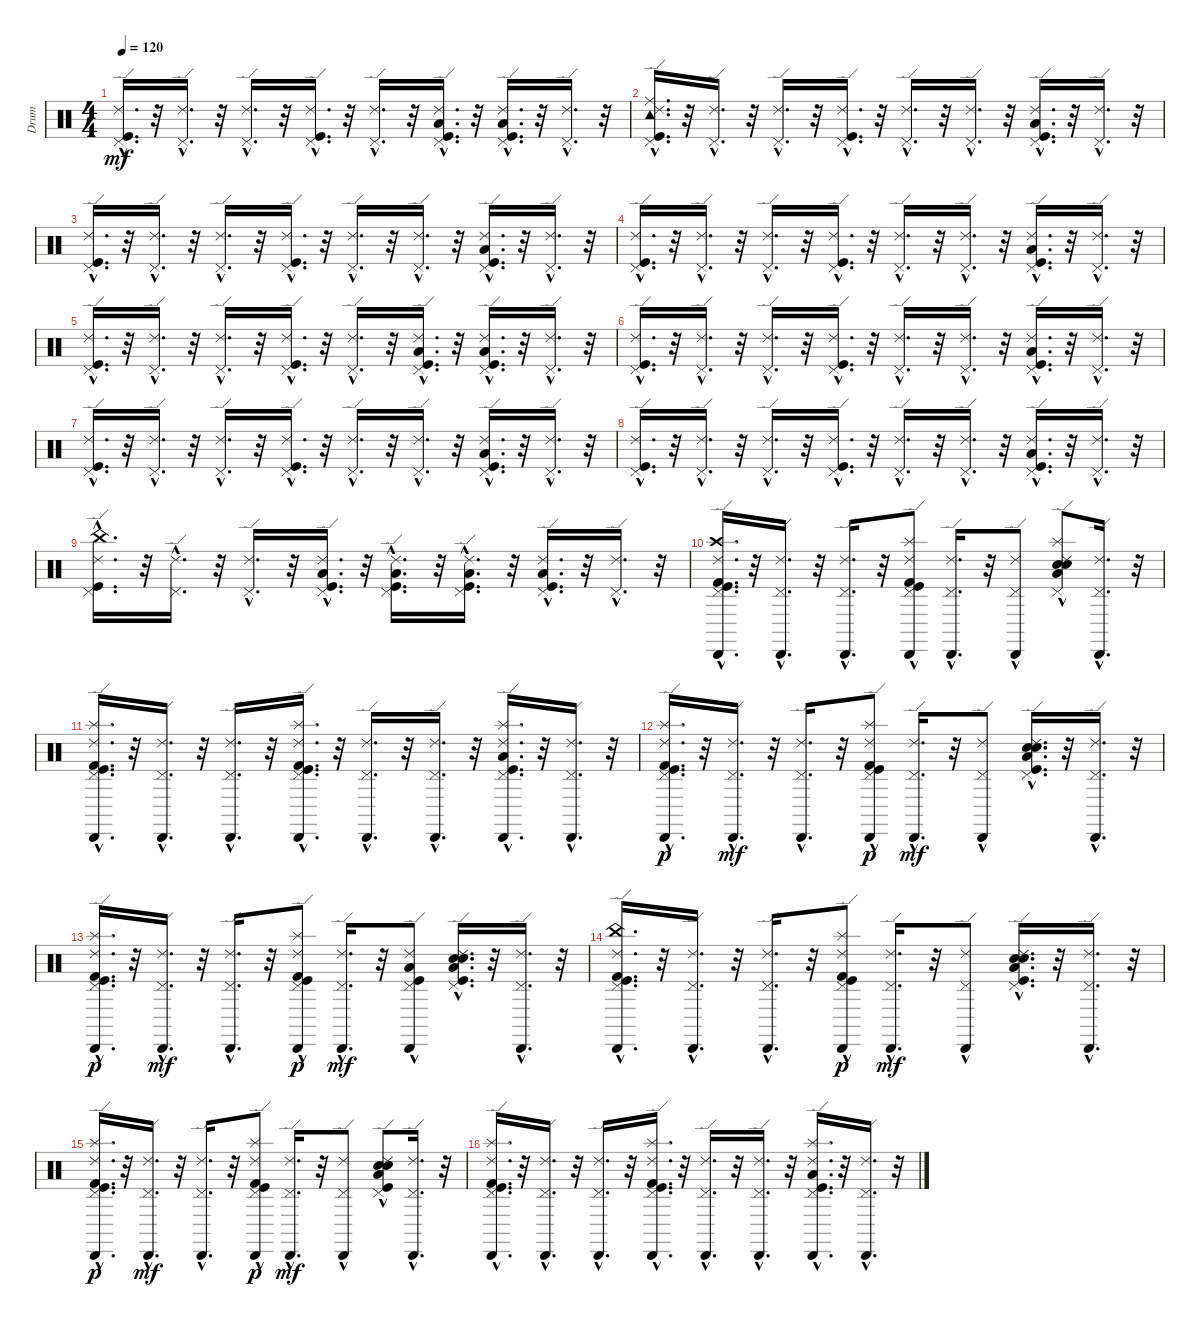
\track ("Drum" "Drum") {instrument percussion}
\staff {score}
\articulation defaults
\ts (4 4)
\tempo 120
\clef neutral
\ks c
("Ride (edge) 2"{hac} "Kick (hit)"{hac} "Pedal Hi-Hat (hit)"{hac}).16{d dy mf} r.32 ("Ride (edge) 2"{hac} "Pedal Hi-Hat (hit)"{hac}).16{d} r.32 ("Ride (edge) 2"{hac} "Pedal Hi-Hat (hit)"{hac}).16{d} r.32 ("Ride (edge) 2"{hac} "Kick (hit)"{hac} "Pedal Hi-Hat (hit)"{hac}).16{d} r.32 ("Ride (edge) 2"{hac} "Pedal Hi-Hat (hit)"{hac}).16{d} r.32 ("Ride (edge) 2"{hac} "Pedal Hi-Hat (hit)"{hac} "Kick (hit)"{hac} "Low Tom (hit)"{hac}).16{d} r.32 ("Ride (edge) 2"{hac} "Low Tom (hit)"{hac} "Kick (hit)"{hac} "Pedal Hi-Hat (hit)"{hac}).16{d} r.32 ("Ride (edge) 2"{hac} "Pedal Hi-Hat (hit)"{hac}).16{d} r.32 |
("Ride (edge) 2"{hac} "Kick (hit)"{hac} "Pedal Hi-Hat (hit)"{hac} "Ride (middle)"{hac} "Tambourine (hit)"{hac}).16{d} r.32 ("Ride (edge) 2"{hac} "Pedal Hi-Hat (hit)"{hac}).16{d} r.32 ("Ride (edge) 2"{hac} "Pedal Hi-Hat (hit)"{hac}).16{d} r.32 ("Pedal Hi-Hat (hit)"{hac} "Ride (edge) 2"{hac} "Kick (hit)"{hac}).16{d} r.32 ("Pedal Hi-Hat (hit)"{hac} "Ride (edge) 2"{hac}).16{d} r.32 ("Pedal Hi-Hat (hit)"{hac} "Ride (edge) 2"{hac}).16{d} r.32 ("Kick (hit)"{hac} "Pedal Hi-Hat (hit)"{hac} "Ride (edge) 2"{hac} "Low Tom (hit)"{hac}).16{d} r.32 ("Pedal Hi-Hat (hit)"{hac} "Ride (edge) 2"{hac}).16{d} r.32 |
("Ride (edge) 2"{hac} "Kick (hit)"{hac} "Pedal Hi-Hat (hit)"{hac}).16{d} r.32 ("Ride (edge) 2"{hac} "Pedal Hi-Hat (hit)"{hac}).16{d} r.32 ("Ride (edge) 2"{hac} "Pedal Hi-Hat (hit)"{hac}).16{d} r.32 ("Ride (edge) 2"{hac} "Kick (hit)"{hac} "Pedal Hi-Hat (hit)"{hac}).16{d} r.32 ("Ride (edge) 2"{hac} "Pedal Hi-Hat (hit)"{hac}).16{d} r.32 ("Ride (edge) 2"{hac} "Pedal Hi-Hat (hit)"{hac}).16{d} r.32 ("Ride (edge) 2"{hac} "Low Tom (hit)"{hac} "Kick (hit)"{hac} "Pedal Hi-Hat (hit)"{hac}).16{d} r.32 ("Ride (edge) 2"{hac} "Pedal Hi-Hat (hit)"{hac}).16{d} r.32 |
("Ride (edge) 2"{hac} "Kick (hit)"{hac} "Pedal Hi-Hat (hit)"{hac}).16{d} r.32 ("Ride (edge) 2"{hac} "Pedal Hi-Hat (hit)"{hac}).16{d} r.32 ("Ride (edge) 2"{hac} "Pedal Hi-Hat (hit)"{hac}).16{d} r.32 ("Ride (edge) 2"{hac} "Kick (hit)"{hac} "Pedal Hi-Hat (hit)"{hac}).16{d} r.32 ("Ride (edge) 2"{hac} "Pedal Hi-Hat (hit)"{hac}).16{d} r.32 ("Ride (edge) 2"{hac} "Pedal Hi-Hat (hit)"{hac}).16{d} r.32 ("Ride (edge) 2"{hac} "Low Tom (hit)"{hac} "Kick (hit)"{hac} "Pedal Hi-Hat (hit)"{hac}).16{d} r.32 ("Ride (edge) 2"{hac} "Pedal Hi-Hat (hit)"{hac}).16{d} r.32 |
("Ride (edge) 2"{hac} "Kick (hit)"{hac} "Pedal Hi-Hat (hit)"{hac}).16{d} r.32 ("Ride (edge) 2"{hac} "Pedal Hi-Hat (hit)"{hac}).16{d} r.32 ("Ride (edge) 2"{hac} "Pedal Hi-Hat (hit)"{hac}).16{d} r.32 ("Ride (edge) 2"{hac} "Kick (hit)"{hac} "Pedal Hi-Hat (hit)"{hac}).16{d} r.32 ("Ride (edge) 2"{hac} "Pedal Hi-Hat (hit)"{hac}).16{d} r.32 ("Ride (edge) 2"{hac} "Pedal Hi-Hat (hit)"{hac} "Kick (hit)"{hac} "Low Tom (hit)"{hac}).16{d} r.32 ("Ride (edge) 2"{hac} "Low Tom (hit)"{hac} "Kick (hit)"{hac} "Pedal Hi-Hat (hit)"{hac}).16{d} r.32 ("Ride (edge) 2"{hac} "Pedal Hi-Hat (hit)"{hac}).16{d} r.32 |
("Ride (edge) 2"{hac} "Kick (hit)"{hac} "Pedal Hi-Hat (hit)"{hac}).16{d} r.32 ("Ride (edge) 2"{hac} "Pedal Hi-Hat (hit)"{hac}).16{d} r.32 ("Ride (edge) 2"{hac} "Pedal Hi-Hat (hit)"{hac}).16{d} r.32 ("Ride (edge) 2"{hac} "Kick (hit)"{hac} "Pedal Hi-Hat (hit)"{hac}).16{d} r.32 ("Ride (edge) 2"{hac} "Pedal Hi-Hat (hit)"{hac}).16{d} r.32 ("Ride (edge) 2"{hac} "Pedal Hi-Hat (hit)"{hac}).16{d} r.32 ("Ride (edge) 2"{hac} "Low Tom (hit)"{hac} "Kick (hit)"{hac} "Pedal Hi-Hat (hit)"{hac}).16{d} r.32 ("Ride (edge) 2"{hac} "Pedal Hi-Hat (hit)"{hac}).16{d} r.32 |
("Pedal Hi-Hat (hit)"{hac} "Kick (hit)"{hac} "Ride (edge) 2"{hac}).16{d} r.32 ("Pedal Hi-Hat (hit)"{hac} "Ride (edge) 2"{hac}).16{d} r.32 ("Pedal Hi-Hat (hit)"{hac} "Ride (edge) 2"{hac}).16{d} r.32 ("Pedal Hi-Hat (hit)"{hac} "Kick (hit)"{hac} "Ride (edge) 2"{hac}).16{d} r.32 ("Pedal Hi-Hat (hit)"{hac} "Ride (edge) 2"{hac}).16{d} r.32 ("Pedal Hi-Hat (hit)"{hac} "Ride (edge) 2"{hac}).16{d} r.32 ("Pedal Hi-Hat (hit)"{hac} "Kick (hit)"{hac} "Low Tom (hit)"{hac} "Ride (edge) 2"{hac}).16{d} r.32 ("Pedal Hi-Hat (hit)"{hac} "Ride (edge) 2"{hac}).16{d} r.32 |
("Pedal Hi-Hat (hit)"{hac} "Kick (hit)"{hac} "Ride (edge) 2"{hac}).16{d} r.32 ("Pedal Hi-Hat (hit)"{hac} "Ride (edge) 2"{hac}).16{d} r.32 ("Pedal Hi-Hat (hit)"{hac} "Ride (edge) 2"{hac}).16{d} r.32 ("Pedal Hi-Hat (hit)"{hac} "Kick (hit)"{hac} "Ride (edge) 2"{hac}).16{d} r.32 ("Pedal Hi-Hat (hit)"{hac} "Ride (edge) 2"{hac}).16{d} r.32 ("Pedal Hi-Hat (hit)"{hac} "Ride (edge) 2"{hac}).16{d} r.32 ("Pedal Hi-Hat (hit)"{hac} "Kick (hit)"{hac} "Low Tom (hit)"{hac} "Ride (edge) 2"{hac}).16{d} r.32 ("Pedal Hi-Hat (hit)"{hac} "Ride (edge) 2"{hac}).16{d} r.32 |
("China (hit)"{hac} "Pedal Hi-Hat (hit)"{hac} "Kick (hit)"{hac} "Ride (edge) 2"{hac}).16{d} r.32 ("Pedal Hi-Hat (hit)"{hac} "Ride (edge) 2"{hac}).16{d} r.32 ("Pedal Hi-Hat (hit)"{hac} "Ride (edge) 2"{hac}).16{d} r.32 ("Low Tom (hit)"{hac} "Pedal Hi-Hat (hit)"{hac} "Kick (hit)"{hac} "Ride (edge) 2"{hac}).16{d} r.32 ("Kick (hit)"{hac} "Low Tom (hit)"{hac} "Pedal Hi-Hat (hit)"{hac} "Ride (edge) 2"{hac}).16{d} r.32 ("Low Tom (hit)"{hac} "Kick (hit)"{hac} "Pedal Hi-Hat (hit)"{hac} "Ride (edge) 2"{hac}).16{d} r.32 ("Pedal Hi-Hat (hit)"{hac} "Kick (hit)"{hac} "Low Tom (hit)"{hac} "Ride (edge) 2"{hac}).16{d} r.32 ("Pedal Hi-Hat (hit)"{hac} "Ride (edge) 2"{hac}).16{d} r.32 |
("Kick (hit)"{hac} "Pedal Hi-Hat (hit)"{hac} "Crash high (hit)"{hac} "Ride (edge) 2"{hac} "Cabasa (hit)"{hac} "Kick (hit) 2"{hac}).16{d} r.32 ("Cabasa (hit)"{hac} "Pedal Hi-Hat (hit)"{hac} "Ride (edge) 2"{hac}).16{d} r.32 ("Ride (edge) 2"{hac} "Cabasa (hit)"{hac} "Pedal Hi-Hat (hit)"{hac}).16{d} r.32 ("Splash (hit)"{hac} "Kick (hit) 2"{hac} "Cabasa (hit)"{hac} "Ride (edge) 2"{hac} "Pedal Hi-Hat (hit)"{hac} "Kick (hit)"{hac}).8 ("Ride (edge) 2"{hac} "Cabasa (hit)"{hac} "Pedal Hi-Hat (hit)"{hac}).16{d} r.32 ("Cabasa (hit)"{hac} "Pedal Hi-Hat (hit)"{hac} "Ride (edge) 2"{hac}).8 ("Snare (hit) 2" "Pedal Hi-Hat (hit)"{hac} "Splash (hit)"{hac} "Electric Snare (hit)" "Low Tom (hit)"{hac} "Ride (edge) 2"{hac}).8 ("Ride (edge) 2"{hac} "Cabasa (hit)"{hac} "Pedal Hi-Hat (hit)"{hac}).16{d} r.32 |
("Splash (hit)"{hac} "Kick (hit) 2"{hac} "Cabasa (hit)"{hac} "Pedal Hi-Hat (hit)"{hac} "Kick (hit)"{hac} "Ride (edge) 2"{hac}).16{d} r.32 ("Cabasa (hit)"{hac} "Pedal Hi-Hat (hit)"{hac} "Ride (edge) 2"{hac}).16{d} r.32 ("Cabasa (hit)"{hac} "Pedal Hi-Hat (hit)"{hac} "Ride (edge) 2"{hac}).16{d} r.32 ("Splash (hit)"{hac} "Kick (hit) 2"{hac} "Cabasa (hit)"{hac} "Pedal Hi-Hat (hit)"{hac} "Kick (hit)"{hac} "Ride (edge) 2"{hac}).16{d} r.32 ("Cabasa (hit)"{hac} "Pedal Hi-Hat (hit)"{hac} "Ride (edge) 2"{hac}).16{d} r.32 ("Cabasa (hit)"{hac} "Pedal Hi-Hat (hit)"{hac} "Ride (edge) 2"{hac}).16{d} r.32 ("Splash (hit)"{hac} "Cabasa (hit)"{hac} "Pedal Hi-Hat (hit)"{hac} "Kick (hit)"{hac} "Low Tom (hit)"{hac} "Ride (edge) 2"{hac}).16{d} r.32 ("Cabasa (hit)"{hac} "Pedal Hi-Hat (hit)"{hac} "Ride (edge) 2"{hac}).16{d} r.32 |
("Ride (edge) 2"{hac} "Kick (hit)"{hac} "Pedal Hi-Hat (hit)"{hac} "Cabasa (hit)"{hac} "Kick (hit) 2"{hac} "Splash (hit)"{hac}).16{d dy p} r.32 ("Ride (edge) 2"{hac} "Pedal Hi-Hat (hit)"{hac} "Cabasa (hit)"{hac}).16{d dy mf} r.32 ("Ride (edge) 2"{hac} "Pedal Hi-Hat (hit)"{hac} "Cabasa (hit)"{hac}).16{d} r.32 ("Ride (edge) 2"{hac} "Kick (hit)"{hac} "Pedal Hi-Hat (hit)"{hac} "Cabasa (hit)"{hac} "Kick (hit) 2"{hac} "Splash (hit)"{hac}).8{dy p} ("Ride (edge) 2"{hac} "Pedal Hi-Hat (hit)"{hac} "Cabasa (hit)"{hac}).16{d dy mf} r.32 ("Ride (edge) 2"{hac} "Pedal Hi-Hat (hit)"{hac} "Cabasa (hit)"{hac}).8 ("Electric Snare (hit)"{hac} "Snare (hit) 2"{hac} "Ride (edge) 2"{hac} "Low Tom (hit)"{hac} "Kick (hit)"{hac} "Pedal Hi-Hat (hit)"{hac}).16{d} r.32 ("Ride (edge) 2"{hac} "Pedal Hi-Hat (hit)"{hac} "Cabasa (hit)"{hac}).16{d} r.32 |
("Ride (edge) 2"{hac} "Kick (hit)"{hac} "Pedal Hi-Hat (hit)"{hac} "Cabasa (hit)"{hac} "Kick (hit) 2"{hac} "Splash (hit)"{hac}).16{d dy p} r.32 ("Ride (edge) 2"{hac} "Pedal Hi-Hat (hit)"{hac} "Cabasa (hit)"{hac}).16{d dy mf} r.32 ("Ride (edge) 2"{hac} "Pedal Hi-Hat (hit)"{hac} "Cabasa (hit)"{hac}).16{d} r.32 ("Ride (edge) 2"{hac} "Kick (hit)"{hac} "Pedal Hi-Hat (hit)"{hac} "Cabasa (hit)"{hac} "Kick (hit) 2"{hac} "Splash (hit)"{hac}).8{dy p} ("Ride (edge) 2"{hac} "Pedal Hi-Hat (hit)"{hac} "Cabasa (hit)"{hac}).16{d dy mf} r.32 ("Low Tom (hit)"{hac} "Kick (hit)"{hac} "Ride (edge) 2"{hac} "Pedal Hi-Hat (hit)"{hac} "Cabasa (hit)"{hac}).8 ("Electric Snare (hit)"{hac} "Snare (hit) 2"{hac} "Ride (edge) 2"{hac} "Low Tom (hit)"{hac} "Kick (hit)"{hac} "Pedal Hi-Hat (hit)"{hac}).16{d} r.32 ("Ride (edge) 2"{hac} "Pedal Hi-Hat (hit)"{hac} "Cabasa (hit)"{hac}).16{d} r.32 |
("China (hit)"{hac} "Pedal Hi-Hat (hit)"{hac} "Kick (hit)"{hac} "Ride (edge) 2"{hac} "Cabasa (hit)"{hac} "Kick (hit) 2"{hac}).16{d} r.32 ("Pedal Hi-Hat (hit)"{hac} "Ride (edge) 2"{hac} "Cabasa (hit)"{hac}).16{d} r.32 ("Pedal Hi-Hat (hit)"{hac} "Ride (edge) 2"{hac} "Cabasa (hit)"{hac}).16{d} r.32 ("Pedal Hi-Hat (hit)"{hac} "Kick (hit)"{hac} "Ride (edge) 2"{hac} "Cabasa (hit)"{hac} "Kick (hit) 2"{hac} "Splash (hit)"{hac}).8{dy p} ("Pedal Hi-Hat (hit)"{hac} "Ride (edge) 2"{hac} "Cabasa (hit)"{hac}).16{d dy mf} r.32 ("Pedal Hi-Hat (hit)"{hac} "Ride (edge) 2"{hac} "Cabasa (hit)"{hac}).8 ("Pedal Hi-Hat (hit)"{hac} "Kick (hit)"{hac} "Low Tom (hit)"{hac} "Ride (edge) 2"{hac} "Snare (hit) 2"{hac} "Electric Snare (hit)"{hac}).16{d} r.32 ("Pedal Hi-Hat (hit)"{hac} "Ride (edge) 2"{hac} "Cabasa (hit)"{hac}).16{d} r.32 |
("Ride (edge) 2"{hac} "Kick (hit)"{hac} "Pedal Hi-Hat (hit)"{hac} "Cabasa (hit)"{hac} "Kick (hit) 2"{hac} "Splash (hit)"{hac}).16{d dy p} r.32 ("Ride (edge) 2"{hac} "Pedal Hi-Hat (hit)"{hac} "Cabasa (hit)"{hac}).16{d dy mf} r.32 ("Ride (edge) 2"{hac} "Pedal Hi-Hat (hit)"{hac} "Cabasa (hit)"{hac}).16{d} r.32 ("Ride (edge) 2"{hac} "Kick (hit)"{hac} "Pedal Hi-Hat (hit)"{hac} "Cabasa (hit)"{hac} "Kick (hit) 2"{hac} "Splash (hit)"{hac}).8{dy p} ("Ride (edge) 2"{hac} "Pedal Hi-Hat (hit)"{hac} "Cabasa (hit)"{hac}).16{d dy mf} r.32 ("Ride (edge) 2"{hac} "Pedal Hi-Hat (hit)"{hac} "Cabasa (hit)"{hac}).8 ("Electric Snare (hit)" "Snare (hit) 2" "Ride (edge) 2"{hac} "Low Tom (hit)"{hac} "Kick (hit)"{hac} "Pedal Hi-Hat (hit)"{hac}).8 ("Ride (edge) 2"{hac} "Pedal Hi-Hat (hit)"{hac} "Cabasa (hit)"{hac}).16{d} r.32 |
("Splash (hit)"{hac} "Kick (hit) 2"{hac} "Cabasa (hit)"{hac} "Pedal Hi-Hat (hit)"{hac} "Kick (hit)"{hac} "Ride (edge) 2"{hac}).16{d} r.32 ("Cabasa (hit)"{hac} "Pedal Hi-Hat (hit)"{hac} "Ride (edge) 2"{hac}).16{d} r.32 ("Cabasa (hit)"{hac} "Pedal Hi-Hat (hit)"{hac} "Ride (edge) 2"{hac}).16{d} r.32 ("Splash (hit)"{hac} "Kick (hit) 2"{hac} "Cabasa (hit)"{hac} "Pedal Hi-Hat (hit)"{hac} "Kick (hit)"{hac} "Ride (edge) 2"{hac}).16{d} r.32 ("Cabasa (hit)"{hac} "Pedal Hi-Hat (hit)"{hac} "Ride (edge) 2"{hac}).16{d} r.32 ("Cabasa (hit)"{hac} "Pedal Hi-Hat (hit)"{hac} "Ride (edge) 2"{hac}).16{d} r.32 ("Splash (hit)"{hac} "Cabasa (hit)"{hac} "Pedal Hi-Hat (hit)"{hac} "Kick (hit)"{hac} "Low Tom (hit)"{hac} "Ride (edge) 2"{hac}).16{d} r.32 ("Cabasa (hit)"{hac} "Pedal Hi-Hat (hit)"{hac} "Ride (edge) 2"{hac}).16{d} r.32
